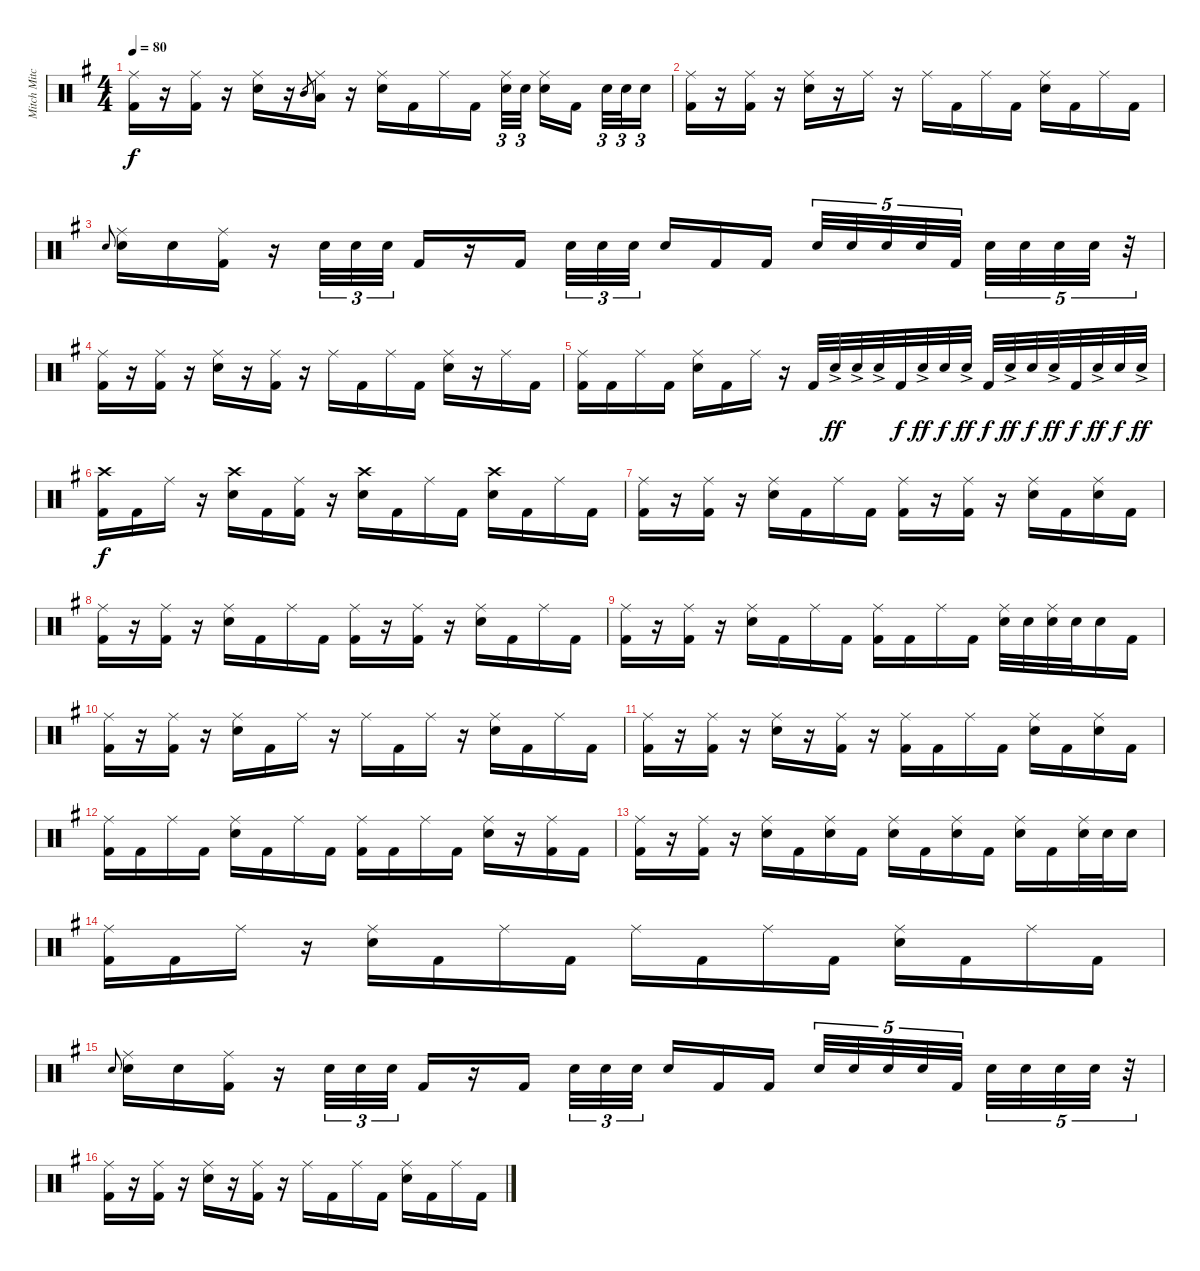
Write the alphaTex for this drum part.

\track ("Mitch Mitchell" "Mitch Mitc") {instrument percussion}
\staff {score}
\articulation defaults
\ts (4 4)
\tempo 80
\clef neutral
\ks eminor
("Ride (middle)" "Kick (hit) 2").16{dy f} r.16 ("Ride (middle)" "Kick (hit) 2").16 r.16 ("Ride (middle)" "Electric Snare (hit)").16 r.16 "Mid Tom (hit)".8{gr} ("Ride (middle)" "Low Tom (hit)").16 r.16 ("Ride (middle)" "Electric Snare (hit)").16 "Kick (hit) 2".16 "Ride (middle)".16 "Kick (hit) 2".16 ("Ride (middle)" "Electric Snare (hit)").32{tu (3 2)} "Electric Snare (hit)".32{tu (3 2) beam splitsecondary} ("Ride (middle)" "Electric Snare (hit)").16 "Kick (hit) 2".16{beam splitsecondary} "Electric Snare (hit)".32{tu (3 2)} "Electric Snare (hit)".32{tu (3 2)} "Electric Snare (hit)".16{tu (3 2)} |
("Ride (middle)" "Kick (hit) 2").16 r.16 ("Ride (middle)" "Kick (hit) 2").16 r.16 ("Ride (middle)" "Electric Snare (hit)").16 r.16 "Ride (middle)".16 r.16 "Ride (middle)".16 "Kick (hit) 2".16 "Ride (middle)".16 "Kick (hit) 2".16 ("Ride (middle)" "Electric Snare (hit)").16 "Kick (hit) 2".16 "Ride (middle)".16 "Kick (hit) 2".16 |
"Electric Snare (hit)".8{gr onbeat} ("Ride (middle)" "Electric Snare (hit)").16 "Electric Snare (hit)".16 ("Ride (middle)" "Kick (hit) 2").16 r.16 "Electric Snare (hit)".32{tu (3 2)} "Electric Snare (hit)".32{tu (3 2)} "Electric Snare (hit)".32{tu (3 2) beam splitsecondary} "Kick (hit) 2".16 r.16 "Kick (hit) 2".16 "Electric Snare (hit)".32{tu (3 2)} "Electric Snare (hit)".32{tu (3 2)} "Electric Snare (hit)".32{tu (3 2) beam splitsecondary} "Electric Snare (hit)".16 "Kick (hit) 2".16 "Kick (hit) 2".16 "Electric Snare (hit)".32{tu (5 4)} "Electric Snare (hit)".32{tu (5 4)} "Electric Snare (hit)".32{tu (5 4)} "Electric Snare (hit)".32{tu (5 4)} "Kick (hit) 2".32{tu (5 4) beam splitsecondary} "Electric Snare (hit)".32{tu (5 4)} "Electric Snare (hit)".32{tu (5 4)} "Electric Snare (hit)".32{tu (5 4)} "Electric Snare (hit)".32{tu (5 4)} r.32{tu (5 4)} |
("Ride (middle)" "Kick (hit) 2").16 r.16 ("Ride (middle)" "Kick (hit) 2").16 r.16 ("Ride (middle)" "Electric Snare (hit)").16 r.16 ("Ride (middle)" "Kick (hit) 2").16 r.16 "Ride (middle)".16 "Kick (hit) 2".16 "Ride (middle)".16 "Kick (hit) 2".16 ("Ride (middle)" "Electric Snare (hit)").16 r.16 "Ride (middle)".16 "Kick (hit) 2".16 |
("Ride (middle)" "Kick (hit) 2").16 "Kick (hit) 2".16 "Ride (middle)".16 "Kick (hit) 2".16 ("Ride (middle)" "Electric Snare (hit)").16 "Kick (hit) 2".16 "Ride (middle)".16 r.16 "Kick (hit) 2".32 "Electric Snare (hit)"{ac}.32{dy ff} "Electric Snare (hit)"{ac}.32 "Electric Snare (hit)"{ac}.32 "Kick (hit) 2".32{dy f} "Electric Snare (hit)"{ac}.32{dy ff} "Electric Snare (hit)".32{dy f} "Electric Snare (hit)"{ac}.32{dy ff} "Kick (hit) 2".32{dy f} "Electric Snare (hit)"{ac}.32{dy ff} "Electric Snare (hit)".32{dy f} "Electric Snare (hit)"{ac}.32{dy ff} "Kick (hit) 2".32{dy f} "Electric Snare (hit)"{ac}.32{dy ff} "Electric Snare (hit)".32{dy f} "Electric Snare (hit)"{ac}.32{dy ff} |
("Crash high (hit)" "Kick (hit) 2").16{dy f} "Kick (hit) 2".16 "Ride (middle)".16 r.16 ("Crash high (hit)" "Electric Snare (hit)").16 "Kick (hit) 2".16 ("Ride (middle)" "Kick (hit) 2").16 r.16 ("Crash high (hit)" "Electric Snare (hit)").16 "Kick (hit) 2".16 "Ride (middle)".16 "Kick (hit) 2".16 ("Crash high (hit)" "Electric Snare (hit)").16 "Kick (hit) 2".16 "Ride (middle)".16 "Kick (hit) 2".16 |
("Ride (middle)" "Kick (hit) 2").16 r.16 ("Ride (middle)" "Kick (hit) 2").16 r.16 ("Ride (middle)" "Electric Snare (hit)").16 "Kick (hit) 2".16 "Ride (middle)".16 "Kick (hit) 2".16 ("Ride (middle)" "Kick (hit) 2").16 r.16 ("Ride (middle)" "Kick (hit) 2").16 r.16 ("Ride (middle)" "Electric Snare (hit)").16 "Kick (hit) 2".16 ("Ride (middle)" "Electric Snare (hit)").16 "Kick (hit) 2".16 |
("Ride (middle)" "Kick (hit) 2").16 r.16 ("Ride (middle)" "Kick (hit) 2").16 r.16 ("Ride (middle)" "Electric Snare (hit)").16 "Kick (hit) 2".16 "Ride (middle)".16 "Kick (hit) 2".16 ("Ride (middle)" "Kick (hit) 2").16 r.16 ("Ride (middle)" "Kick (hit) 2").16 r.16 ("Ride (middle)" "Electric Snare (hit)").16 "Kick (hit) 2".16 "Ride (middle)".16 "Kick (hit) 2".16 |
("Ride (middle)" "Kick (hit) 2").16 r.16 ("Ride (middle)" "Kick (hit) 2").16 r.16 ("Ride (middle)" "Electric Snare (hit)").16 "Kick (hit) 2".16 "Ride (middle)".16 "Kick (hit) 2".16 ("Ride (middle)" "Kick (hit) 2").16 "Kick (hit) 2".16 "Ride (middle)".16 "Kick (hit) 2".16 ("Ride (middle)" "Electric Snare (hit)").32 "Electric Snare (hit)".32 ("Ride (middle)" "Electric Snare (hit)").32 "Electric Snare (hit)".32 "Electric Snare (hit)".16 "Kick (hit) 2".16 |
("Ride (middle)" "Kick (hit) 2").16 r.16 ("Ride (middle)" "Kick (hit) 2").16 r.16 ("Ride (middle)" "Electric Snare (hit)").16 "Kick (hit) 2".16 "Ride (middle)".16 r.16 "Ride (middle)".16 "Kick (hit) 2".16 "Ride (middle)".16 r.16 ("Ride (middle)" "Electric Snare (hit)").16 "Kick (hit) 2".16 "Ride (middle)".16 "Kick (hit) 2".16 |
("Ride (middle)" "Kick (hit) 2").16 r.16 ("Ride (middle)" "Kick (hit) 2").16 r.16 ("Ride (middle)" "Electric Snare (hit)").16 r.16 ("Ride (middle)" "Kick (hit) 2").16 r.16 ("Ride (middle)" "Kick (hit) 2").16 "Kick (hit) 2".16 "Ride (middle)".16 "Kick (hit) 2".16 ("Ride (middle)" "Electric Snare (hit)").16 "Kick (hit) 2".16 ("Ride (middle)" "Electric Snare (hit)").16 "Kick (hit) 2".16 |
("Ride (middle)" "Kick (hit) 2").16 "Kick (hit) 2".16 "Ride (middle)".16 "Kick (hit) 2".16 ("Ride (middle)" "Electric Snare (hit)").16 "Kick (hit) 2".16 "Ride (middle)".16 "Kick (hit) 2".16 ("Ride (middle)" "Kick (hit) 2").16 "Kick (hit) 2".16 "Ride (middle)".16 "Kick (hit) 2".16 ("Ride (middle)" "Electric Snare (hit)").16 r.16 ("Ride (middle)" "Kick (hit) 2").16 "Kick (hit) 2".16 |
("Ride (middle)" "Kick (hit) 2").16 r.16 ("Ride (middle)" "Kick (hit) 2").16 r.16 ("Ride (middle)" "Electric Snare (hit)").16 "Kick (hit) 2".16 ("Ride (middle)" "Electric Snare (hit)").16 "Kick (hit) 2".16 ("Ride (middle)" "Electric Snare (hit)").16 "Kick (hit) 2".16 ("Ride (middle)" "Electric Snare (hit)").16 "Kick (hit) 2".16 ("Ride (middle)" "Electric Snare (hit)").16 "Kick (hit) 2".16 ("Ride (middle)" "Electric Snare (hit)").32 "Electric Snare (hit)".32 "Electric Snare (hit)".16 |
("Ride (middle)" "Kick (hit) 2").16 "Kick (hit) 2".16 "Ride (middle)".16 r.16 ("Ride (middle)" "Electric Snare (hit)").16 "Kick (hit) 2".16 "Ride (middle)".16 "Kick (hit) 2".16 "Ride (middle)".16 "Kick (hit) 2".16 "Ride (middle)".16 "Kick (hit) 2".16 ("Ride (middle)" "Electric Snare (hit)").16 "Kick (hit) 2".16 "Ride (middle)".16 "Kick (hit) 2".16 |
"Electric Snare (hit)".8{gr onbeat} ("Ride (middle)" "Electric Snare (hit)").16 "Electric Snare (hit)".16 ("Ride (middle)" "Kick (hit) 2").16 r.16 "Electric Snare (hit)".32{tu (3 2)} "Electric Snare (hit)".32{tu (3 2)} "Electric Snare (hit)".32{tu (3 2) beam splitsecondary} "Kick (hit) 2".16 r.16 "Kick (hit) 2".16 "Electric Snare (hit)".32{tu (3 2)} "Electric Snare (hit)".32{tu (3 2)} "Electric Snare (hit)".32{tu (3 2) beam splitsecondary} "Electric Snare (hit)".16 "Kick (hit) 2".16 "Kick (hit) 2".16 "Electric Snare (hit)".32{tu (5 4)} "Electric Snare (hit)".32{tu (5 4)} "Electric Snare (hit)".32{tu (5 4)} "Electric Snare (hit)".32{tu (5 4)} "Kick (hit) 2".32{tu (5 4) beam splitsecondary} "Electric Snare (hit)".32{tu (5 4)} "Electric Snare (hit)".32{tu (5 4)} "Electric Snare (hit)".32{tu (5 4)} "Electric Snare (hit)".32{tu (5 4)} r.32{tu (5 4)} |
("Ride (middle)" "Kick (hit) 2").16 r.16 ("Ride (middle)" "Kick (hit) 2").16 r.16 ("Ride (middle)" "Electric Snare (hit)").16 r.16 ("Ride (middle)" "Kick (hit) 2").16 r.16 "Ride (middle)".16 "Kick (hit) 2".16 "Ride (middle)".16 "Kick (hit) 2".16 ("Ride (middle)" "Electric Snare (hit)").16 "Kick (hit) 2".16 "Ride (middle)".16 "Kick (hit) 2".16
